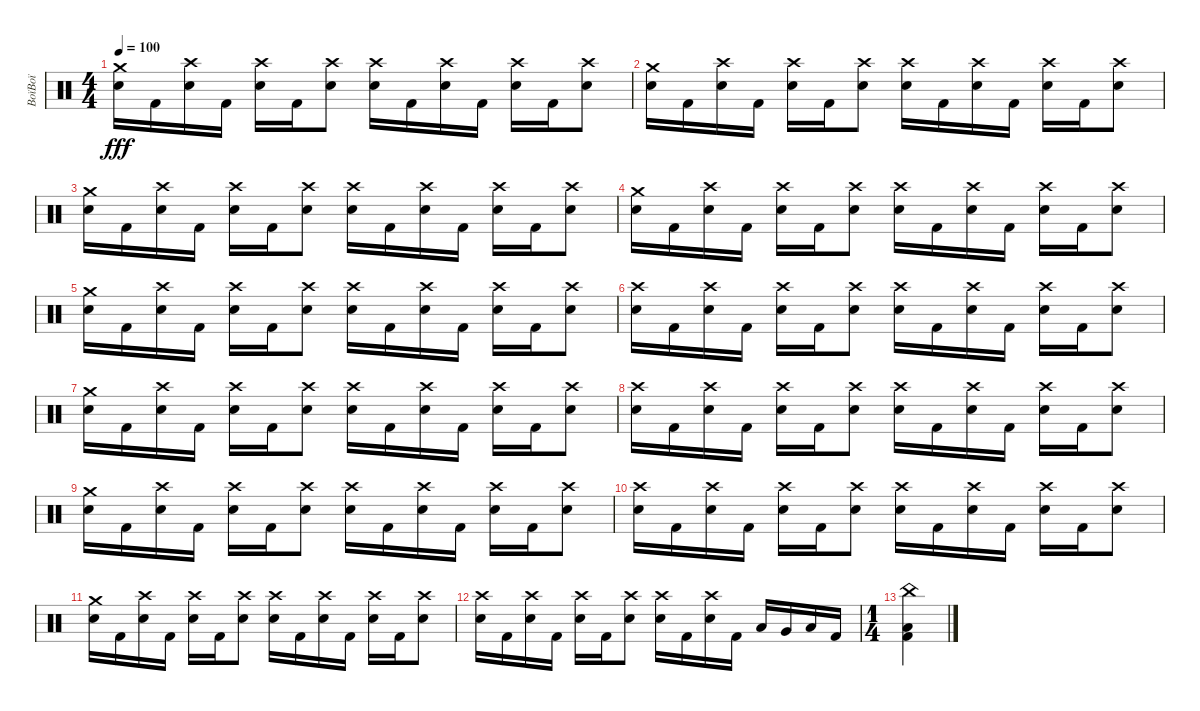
\track ("BoïBoï" "BoïBoï") {instrument percussion}
\staff {score}
\articulation defaults
\ts (4 4)
\tempo 100
\clef neutral
\ks c
("Crash medium (hit)" "Electric Snare (hit)").16{dy fff} "Kick (hit) 2".16 ("Crash high (hit)" "Electric Snare (hit)").16 "Kick (hit) 2".16 ("Crash high (hit)" "Electric Snare (hit)").16 "Kick (hit) 2".16 ("Crash high (hit)" "Electric Snare (hit)").8 ("Crash high (hit)" "Electric Snare (hit)").16 "Kick (hit) 2".16 ("Crash high (hit)" "Electric Snare (hit)").16 "Kick (hit) 2".16 ("Crash high (hit)" "Electric Snare (hit)").16 "Kick (hit) 2".16 ("Crash high (hit)" "Electric Snare (hit)").8 |
("Crash medium (hit)" "Electric Snare (hit)").16 "Kick (hit) 2".16 ("Crash high (hit)" "Electric Snare (hit)").16 "Kick (hit) 2".16 ("Crash high (hit)" "Electric Snare (hit)").16 "Kick (hit) 2".16 ("Crash high (hit)" "Electric Snare (hit)").8 ("Crash high (hit)" "Electric Snare (hit)").16 "Kick (hit) 2".16 ("Crash high (hit)" "Electric Snare (hit)").16 "Kick (hit) 2".16 ("Crash high (hit)" "Electric Snare (hit)").16 "Kick (hit) 2".16 ("Crash high (hit)" "Electric Snare (hit)").8 |
("Crash medium (hit)" "Electric Snare (hit)").16 "Kick (hit) 2".16 ("Crash high (hit)" "Electric Snare (hit)").16 "Kick (hit) 2".16 ("Crash high (hit)" "Electric Snare (hit)").16 "Kick (hit) 2".16 ("Crash high (hit)" "Electric Snare (hit)").8 ("Crash high (hit)" "Electric Snare (hit)").16 "Kick (hit) 2".16 ("Crash high (hit)" "Electric Snare (hit)").16 "Kick (hit) 2".16 ("Crash high (hit)" "Electric Snare (hit)").16 "Kick (hit) 2".16 ("Crash high (hit)" "Electric Snare (hit)").8 |
("Crash medium (hit)" "Electric Snare (hit)").16 "Kick (hit) 2".16 ("Crash high (hit)" "Electric Snare (hit)").16 "Kick (hit) 2".16 ("Crash high (hit)" "Electric Snare (hit)").16 "Kick (hit) 2".16 ("Crash high (hit)" "Electric Snare (hit)").8 ("Crash high (hit)" "Electric Snare (hit)").16 "Kick (hit) 2".16 ("Crash high (hit)" "Electric Snare (hit)").16 "Kick (hit) 2".16 ("Crash high (hit)" "Electric Snare (hit)").16 "Kick (hit) 2".16 ("Crash high (hit)" "Electric Snare (hit)").8 |
("Crash medium (hit)" "Electric Snare (hit)").16 "Kick (hit) 2".16 ("Crash high (hit)" "Electric Snare (hit)").16 "Kick (hit) 2".16 ("Crash high (hit)" "Electric Snare (hit)").16 "Kick (hit) 2".16 ("Crash high (hit)" "Electric Snare (hit)").8 ("Crash high (hit)" "Electric Snare (hit)").16 "Kick (hit) 2".16 ("Crash high (hit)" "Electric Snare (hit)").16 "Kick (hit) 2".16 ("Crash high (hit)" "Electric Snare (hit)").16 "Kick (hit) 2".16 ("Crash high (hit)" "Electric Snare (hit)").8 |
("Crash high (hit)" "Electric Snare (hit)").16 "Kick (hit) 2".16 ("Crash high (hit)" "Electric Snare (hit)").16 "Kick (hit) 2".16 ("Crash high (hit)" "Electric Snare (hit)").16 "Kick (hit) 2".16 ("Crash high (hit)" "Electric Snare (hit)").8 ("Crash high (hit)" "Electric Snare (hit)").16 "Kick (hit) 2".16 ("Crash high (hit)" "Electric Snare (hit)").16 "Kick (hit) 2".16 ("Crash high (hit)" "Electric Snare (hit)").16 "Kick (hit) 2".16 ("Crash high (hit)" "Electric Snare (hit)").8 |
("Crash medium (hit)" "Electric Snare (hit)").16 "Kick (hit) 2".16 ("Crash high (hit)" "Electric Snare (hit)").16 "Kick (hit) 2".16 ("Crash high (hit)" "Electric Snare (hit)").16 "Kick (hit) 2".16 ("Crash high (hit)" "Electric Snare (hit)").8 ("Crash high (hit)" "Electric Snare (hit)").16 "Kick (hit) 2".16 ("Crash high (hit)" "Electric Snare (hit)").16 "Kick (hit) 2".16 ("Crash high (hit)" "Electric Snare (hit)").16 "Kick (hit) 2".16 ("Crash high (hit)" "Electric Snare (hit)").8 |
("Crash high (hit)" "Electric Snare (hit)").16 "Kick (hit) 2".16 ("Crash high (hit)" "Electric Snare (hit)").16 "Kick (hit) 2".16 ("Crash high (hit)" "Electric Snare (hit)").16 "Kick (hit) 2".16 ("Crash high (hit)" "Electric Snare (hit)").8 ("Crash high (hit)" "Electric Snare (hit)").16 "Kick (hit) 2".16 ("Crash high (hit)" "Electric Snare (hit)").16 "Kick (hit) 2".16 ("Crash high (hit)" "Electric Snare (hit)").16 "Kick (hit) 2".16 ("Crash high (hit)" "Electric Snare (hit)").8 |
("Crash medium (hit)" "Electric Snare (hit)").16 "Kick (hit) 2".16 ("Crash high (hit)" "Electric Snare (hit)").16 "Kick (hit) 2".16 ("Crash high (hit)" "Electric Snare (hit)").16 "Kick (hit) 2".16 ("Crash high (hit)" "Electric Snare (hit)").8 ("Crash high (hit)" "Electric Snare (hit)").16 "Kick (hit) 2".16 ("Crash high (hit)" "Electric Snare (hit)").16 "Kick (hit) 2".16 ("Crash high (hit)" "Electric Snare (hit)").16 "Kick (hit) 2".16 ("Crash high (hit)" "Electric Snare (hit)").8 |
("Crash high (hit)" "Electric Snare (hit)").16 "Kick (hit) 2".16 ("Crash high (hit)" "Electric Snare (hit)").16 "Kick (hit) 2".16 ("Crash high (hit)" "Electric Snare (hit)").16 "Kick (hit) 2".16 ("Crash high (hit)" "Electric Snare (hit)").8 ("Crash high (hit)" "Electric Snare (hit)").16 "Kick (hit) 2".16 ("Crash high (hit)" "Electric Snare (hit)").16 "Kick (hit) 2".16 ("Crash high (hit)" "Electric Snare (hit)").16 "Kick (hit) 2".16 ("Crash high (hit)" "Electric Snare (hit)").8 |
("Crash medium (hit)" "Electric Snare (hit)").16 "Kick (hit) 2".16 ("Crash high (hit)" "Electric Snare (hit)").16 "Kick (hit) 2".16 ("Crash high (hit)" "Electric Snare (hit)").16 "Kick (hit) 2".16 ("Crash high (hit)" "Electric Snare (hit)").8 ("Crash high (hit)" "Electric Snare (hit)").16 "Kick (hit) 2".16 ("Crash high (hit)" "Electric Snare (hit)").16 "Kick (hit) 2".16 ("Crash high (hit)" "Electric Snare (hit)").16 "Kick (hit) 2".16 ("Crash high (hit)" "Electric Snare (hit)").8 |
("Crash high (hit)" "Electric Snare (hit)").16 "Kick (hit) 2".16 ("Crash high (hit)" "Electric Snare (hit)").16 "Kick (hit) 2".16 ("Crash high (hit)" "Electric Snare (hit)").16 "Kick (hit) 2".16 ("Crash high (hit)" "Electric Snare (hit)").8 ("Crash high (hit)" "Electric Snare (hit)").16 "Kick (hit) 2".16 ("Crash high (hit)" "Electric Snare (hit)").16 "Kick (hit) 2".16 "Low Tom (hit)".16 "Very Low Tom (hit)".16 "Low Floor Tom (hit)".16 "Kick (hit) 2".16 |
\ts (1 4)
("China (hit)" "Low Floor Tom (hit)" "Kick (hit) 2").4
